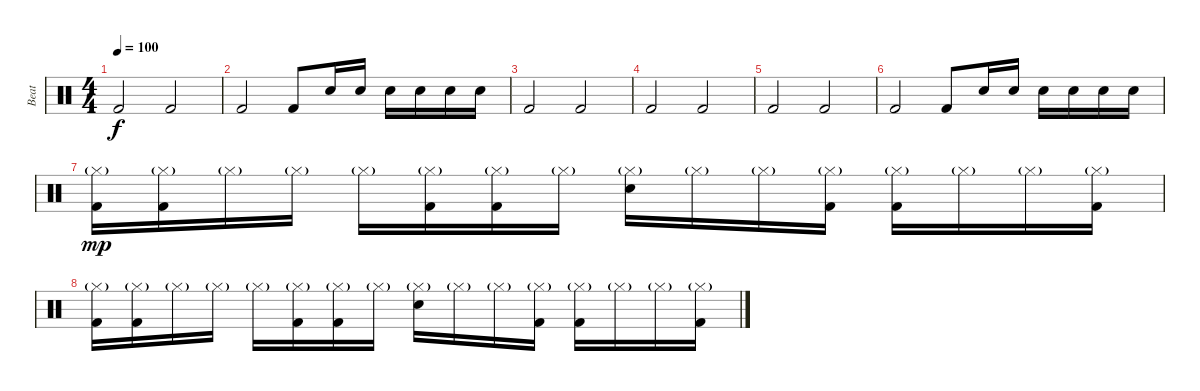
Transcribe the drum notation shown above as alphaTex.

\track ("Beat" "Beat") {instrument percussion}
\staff {score}
\articulation defaults
\ts (4 4)
\tempo 100
\clef neutral
\ks c "Kick (hit) 2".2{dy f} "Kick (hit) 2".2
|
"Kick (hit) 2".2 "Kick (hit) 2".8 "Snare (hit) 2".16 "Snare (hit) 2".16 "Snare (hit) 2".16 "Snare (hit) 2".16 "Snare (hit) 2".16 "Snare (hit) 2".16 |
"Kick (hit) 2".2 "Kick (hit) 2".2 |
"Kick (hit) 2".2 "Kick (hit) 2".2 |
"Kick (hit) 2".2 "Kick (hit) 2".2 |
"Kick (hit) 2".2 "Kick (hit) 2".8 "Snare (hit) 2".16 "Snare (hit) 2".16 "Snare (hit) 2".16 "Snare (hit) 2".16 "Snare (hit) 2".16 "Snare (hit) 2".16 |
("Hi-Hat (closed)"{g} "Kick (hit) 2").16{dy mp} ("Hi-Hat (closed)"{g} "Kick (hit) 2").16 "Hi-Hat (closed)"{g}.16 "Hi-Hat (closed)"{g}.16 "Hi-Hat (closed)"{g}.16 ("Hi-Hat (closed)"{g} "Kick (hit) 2").16 ("Hi-Hat (closed)"{g} "Kick (hit) 2").16 "Hi-Hat (closed)"{g}.16 ("Hi-Hat (closed)"{g} "Snare (hit) 2").16 "Hi-Hat (closed)"{g}.16 "Hi-Hat (closed)"{g}.16 ("Hi-Hat (closed)"{g} "Kick (hit) 2").16 ("Hi-Hat (closed)"{g} "Kick (hit) 2").16 "Hi-Hat (closed)"{g}.16 "Hi-Hat (closed)"{g}.16 ("Hi-Hat (closed)"{g} "Kick (hit) 2").16 |
("Hi-Hat (closed)"{g} "Kick (hit) 2").16 ("Hi-Hat (closed)"{g} "Kick (hit) 2").16 "Hi-Hat (closed)"{g}.16 "Hi-Hat (closed)"{g}.16 "Hi-Hat (closed)"{g}.16 ("Hi-Hat (closed)"{g} "Kick (hit) 2").16 ("Hi-Hat (closed)"{g} "Kick (hit) 2").16 "Hi-Hat (closed)"{g}.16 ("Hi-Hat (closed)"{g} "Snare (hit) 2").16 "Hi-Hat (closed)"{g}.16 "Hi-Hat (closed)"{g}.16 ("Hi-Hat (closed)"{g} "Kick (hit) 2").16 ("Hi-Hat (closed)"{g} "Kick (hit) 2").16 "Hi-Hat (closed)"{g}.16 "Hi-Hat (closed)"{g}.16 ("Hi-Hat (closed)"{g} "Kick (hit) 2").16
